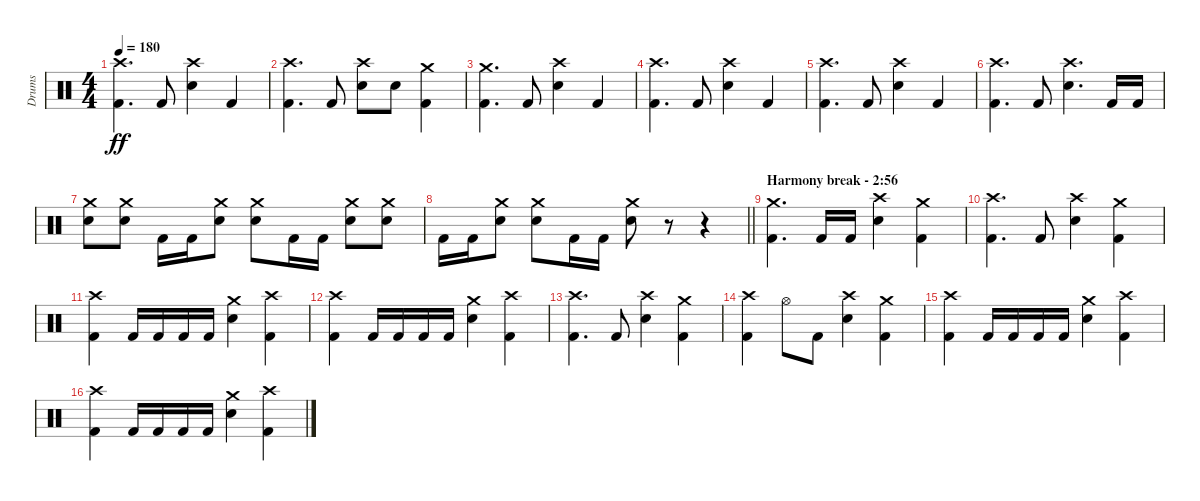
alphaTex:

\track ("Drums" "Drums") {instrument percussion}
\staff {score}
\articulation defaults
\ts (4 4)
\tempo 180
\clef neutral
\ks c
("Crash high (hit)" "Kick (hit) 2").4{d dy ff} "Kick (hit) 2".8 ("Crash high (hit)" "Electric Snare (hit)").4 "Kick (hit) 2".4 |
("Crash high (hit)" "Kick (hit) 2").4{d} "Kick (hit) 2".8 ("Crash high (hit)" "Electric Snare (hit)").8 "Electric Snare (hit)".8 ("Crash medium (hit)" "Kick (hit) 2").4 |
("Crash medium (hit)" "Kick (hit) 2").4{d} "Kick (hit) 2".8 ("Crash high (hit)" "Electric Snare (hit)").4 "Kick (hit) 2".4 |
("Crash high (hit)" "Kick (hit) 2").4{d} "Kick (hit) 2".8 ("Crash high (hit)" "Electric Snare (hit)").4 "Kick (hit) 2".4 |
("Crash high (hit)" "Kick (hit) 2").4{d} "Kick (hit) 2".8 ("Crash high (hit)" "Electric Snare (hit)").4 "Kick (hit) 2".4 |
("Crash high (hit)" "Kick (hit) 2").4{d} "Kick (hit) 2".8 ("Crash high (hit)" "Electric Snare (hit)").4{d} "Kick (hit) 2".16 "Kick (hit) 2".16 |
("Crash medium (hit)" "Electric Snare (hit)").8 ("Crash medium (hit)" "Electric Snare (hit)").8 "Kick (hit) 2".16 "Kick (hit) 2".16 ("Crash medium (hit)" "Electric Snare (hit)").8 ("Crash medium (hit)" "Electric Snare (hit)").8 "Kick (hit) 2".16 "Kick (hit) 2".16 ("Crash medium (hit)" "Electric Snare (hit)").8 ("Crash medium (hit)" "Electric Snare (hit)").8 |
\barLineRight lightlight "Kick (hit) 2".16 "Kick (hit) 2".16
("Crash medium (hit)" "Electric Snare (hit)").8 ("Crash medium (hit)" "Electric Snare (hit)").8 "Kick (hit) 2".16 "Kick (hit) 2".16 ("Crash medium (hit)" "Electric Snare (hit)").8 r.8 r.4 |
\section ("" "Harmony break - 2:56")
("Crash medium (hit)" "Kick (hit) 2").4{d} "Kick (hit) 2".16 "Kick (hit) 2".16 ("Crash high (hit)" "Electric Snare (hit)").4 ("Crash medium (hit)" "Kick (hit) 2").4 |
("Crash high (hit)" "Kick (hit) 2").4{d} "Kick (hit) 2".8 ("Crash high (hit)" "Electric Snare (hit)").4 ("Crash medium (hit)" "Kick (hit) 2").4 |
("Crash high (hit)" "Kick (hit) 2").4 "Kick (hit) 2".16 "Kick (hit) 2".16 "Kick (hit) 2".16 "Kick (hit) 2".16 ("Crash medium (hit)" "Electric Snare (hit)").4 ("Crash high (hit)" "Kick (hit) 2").4 |
("Crash high (hit)" "Kick (hit) 2").4 "Kick (hit) 2".16 "Kick (hit) 2".16 "Kick (hit) 2".16 "Kick (hit) 2".16 ("Crash medium (hit)" "Electric Snare (hit)").4 ("Crash high (hit)" "Kick (hit) 2").4 |
("Crash high (hit)" "Kick (hit) 2").4{d} "Kick (hit) 2".8 ("Crash high (hit)" "Electric Snare (hit)").4 ("Crash medium (hit)" "Kick (hit) 2").4 |
("Crash high (hit)" "Kick (hit) 2").4 "Hi-Hat (open)".8 "Kick (hit) 2".8 ("Crash high (hit)" "Electric Snare (hit)").4 ("Crash medium (hit)" "Kick (hit) 2").4 |
("Crash high (hit)" "Kick (hit) 2").4 "Kick (hit) 2".16 "Kick (hit) 2".16 "Kick (hit) 2".16 "Kick (hit) 2".16 ("Crash medium (hit)" "Electric Snare (hit)").4 ("Crash high (hit)" "Kick (hit) 2").4 |
("Crash high (hit)" "Kick (hit) 2").4 "Kick (hit) 2".16 "Kick (hit) 2".16 "Kick (hit) 2".16 "Kick (hit) 2".16 ("Crash medium (hit)" "Electric Snare (hit)").4 ("Crash high (hit)" "Kick (hit) 2").4
